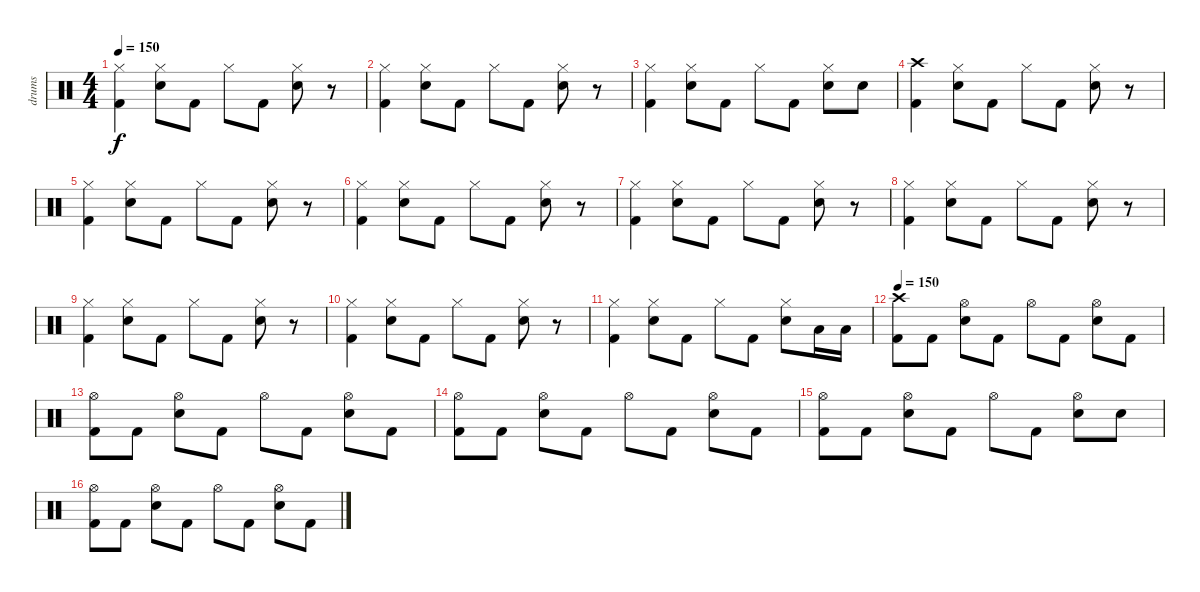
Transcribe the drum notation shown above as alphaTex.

\track ("drums" "drums") {instrument percussion}
\staff {score}
\articulation defaults
\ts (4 4)
\tempo 150
\clef neutral
\ks c
("Hi-Hat (closed)" "Kick (hit) 2").4{dy f} ("Hi-Hat (closed)" "Electric Snare (hit)").8 "Kick (hit) 2".8 "Hi-Hat (closed)".8 "Kick (hit) 2".8 ("Hi-Hat (closed)" "Electric Snare (hit)").8 r.8 |
("Hi-Hat (closed)" "Kick (hit) 2").4 ("Hi-Hat (closed)" "Electric Snare (hit)").8 "Kick (hit) 2".8 "Hi-Hat (closed)".8 "Kick (hit) 2".8 ("Hi-Hat (closed)" "Electric Snare (hit)").8 r.8 |
("Hi-Hat (closed)" "Kick (hit) 2").4 ("Hi-Hat (closed)" "Electric Snare (hit)").8 "Kick (hit) 2".8 "Hi-Hat (closed)".8 "Kick (hit) 2".8 ("Hi-Hat (closed)" "Electric Snare (hit)").8 "Electric Snare (hit)".8 |
("Crash high (hit)" "Kick (hit) 2").4 ("Hi-Hat (closed)" "Electric Snare (hit)").8 "Kick (hit) 2".8 "Hi-Hat (closed)".8 "Kick (hit) 2".8 ("Hi-Hat (closed)" "Electric Snare (hit)").8 r.8 |
("Hi-Hat (closed)" "Kick (hit) 2").4 ("Hi-Hat (closed)" "Electric Snare (hit)").8 "Kick (hit) 2".8 "Hi-Hat (closed)".8 "Kick (hit) 2".8 ("Hi-Hat (closed)" "Electric Snare (hit)").8 r.8 |
("Hi-Hat (closed)" "Kick (hit) 2").4 ("Hi-Hat (closed)" "Electric Snare (hit)").8 "Kick (hit) 2".8 "Hi-Hat (closed)".8 "Kick (hit) 2".8 ("Hi-Hat (closed)" "Electric Snare (hit)").8 r.8 |
("Hi-Hat (closed)" "Kick (hit) 2").4 ("Hi-Hat (closed)" "Electric Snare (hit)").8 "Kick (hit) 2".8 "Hi-Hat (closed)".8 "Kick (hit) 2".8 ("Hi-Hat (closed)" "Electric Snare (hit)").8 r.8 |
("Hi-Hat (closed)" "Kick (hit) 2").4 ("Hi-Hat (closed)" "Electric Snare (hit)").8 "Kick (hit) 2".8 "Hi-Hat (closed)".8 "Kick (hit) 2".8 ("Hi-Hat (closed)" "Electric Snare (hit)").8 r.8 |
("Hi-Hat (closed)" "Kick (hit) 2").4 ("Hi-Hat (closed)" "Electric Snare (hit)").8 "Kick (hit) 2".8 "Hi-Hat (closed)".8 "Kick (hit) 2".8 ("Hi-Hat (closed)" "Electric Snare (hit)").8 r.8 |
("Hi-Hat (closed)" "Kick (hit) 2").4 ("Hi-Hat (closed)" "Electric Snare (hit)").8 "Kick (hit) 2".8 "Hi-Hat (closed)".8 "Kick (hit) 2".8 ("Hi-Hat (closed)" "Electric Snare (hit)").8 r.8 |
("Hi-Hat (closed)" "Kick (hit) 2").4 ("Hi-Hat (closed)" "Electric Snare (hit)").8 "Kick (hit) 2".8 "Hi-Hat (closed)".8 "Kick (hit) 2".8 ("Hi-Hat (closed)" "Electric Snare (hit)").8 "Low Tom (hit)".16 "Low Floor Tom (hit)".16 |
\tempo 150
("Crash high (hit)" "Kick (hit) 2").8 "Kick (hit) 2".8 ("Hi-Hat (open)" "Electric Snare (hit)").8 "Kick (hit) 2".8 "Hi-Hat (open)".8 "Kick (hit) 2".8 ("Hi-Hat (open)" "Electric Snare (hit)").8 "Kick (hit) 2".8 |
("Hi-Hat (open)" "Kick (hit) 2").8 "Kick (hit) 2".8 ("Hi-Hat (open)" "Electric Snare (hit)").8 "Kick (hit) 2".8 "Hi-Hat (open)".8 "Kick (hit) 2".8 ("Hi-Hat (open)" "Electric Snare (hit)").8 "Kick (hit) 2".8 |
("Hi-Hat (open)" "Kick (hit) 2").8 "Kick (hit) 2".8 ("Hi-Hat (open)" "Electric Snare (hit)").8 "Kick (hit) 2".8 "Hi-Hat (open)".8 "Kick (hit) 2".8 ("Hi-Hat (open)" "Electric Snare (hit)").8 "Kick (hit) 2".8 |
("Hi-Hat (open)" "Kick (hit) 2").8 "Kick (hit) 2".8 ("Hi-Hat (open)" "Electric Snare (hit)").8 "Kick (hit) 2".8 "Hi-Hat (open)".8 "Kick (hit) 2".8 ("Hi-Hat (open)" "Electric Snare (hit)").8 "Electric Snare (hit)".8 |
("Hi-Hat (open)" "Kick (hit) 2").8 "Kick (hit) 2".8 ("Hi-Hat (open)" "Electric Snare (hit)").8 "Kick (hit) 2".8 "Hi-Hat (open)".8 "Kick (hit) 2".8 ("Hi-Hat (open)" "Electric Snare (hit)").8 "Kick (hit) 2".8
